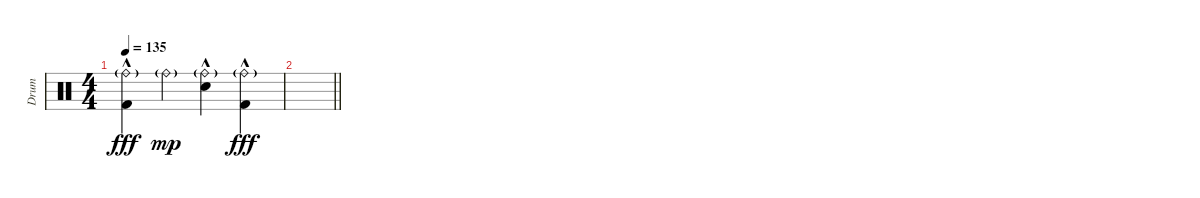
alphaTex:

\track ("Drum" "Drum") {instrument percussion}
\staff {score}
\articulation defaults
\ts (4 4)
\tempo 135
\clef neutral
\ks c
("Ride (bell)"{g} "Kick (hit) 2"{hac}).4{dy fff} "Ride (bell)"{g}.4{dy mp} ("Electric Snare (hit)"{hac} "Ride (bell)"{g}).4 ("Ride (bell)"{g} "Kick (hit) 2"{hac}).4{dy fff} |
\barLineRight lightlight
